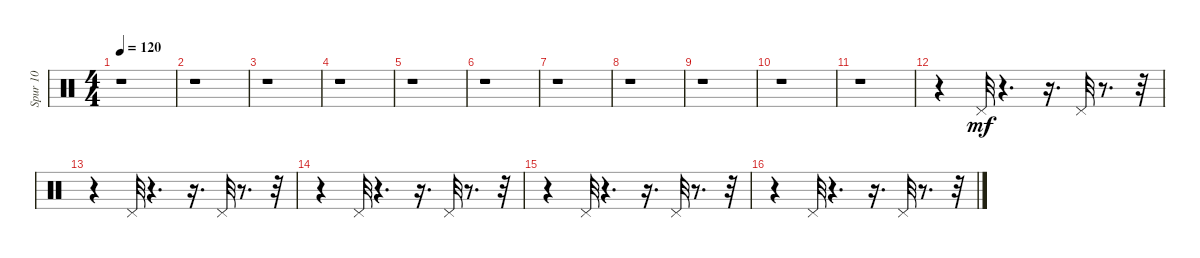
\track ("Spur 10" "Spur 10") {instrument percussion}
\staff {score}
\articulation defaults
\ts (4 4)
\tempo 120
\clef neutral
\ks c
r.1{dy mf} |
r.1 |
r.1 |
r.1 |
r.1 |
r.1 |
r.1 |
r.1 |
r.1 |
r.1 |
r.1 |
r.4 "Pedal Hi-Hat (hit)".32 r.4{d} r.16{d} "Pedal Hi-Hat (hit)".32 r.8{d} r.32 |
r.4 "Pedal Hi-Hat (hit)".32 r.4{d} r.16{d} "Pedal Hi-Hat (hit)".32 r.8{d} r.32 |
r.4 "Pedal Hi-Hat (hit)".32 r.4{d} r.16{d} "Pedal Hi-Hat (hit)".32 r.8{d} r.32 |
r.4 "Pedal Hi-Hat (hit)".32 r.4{d} r.16{d} "Pedal Hi-Hat (hit)".32 r.8{d} r.32 |
r.4 "Pedal Hi-Hat (hit)".32 r.4{d} r.16{d} "Pedal Hi-Hat (hit)".32 r.8{d} r.32
